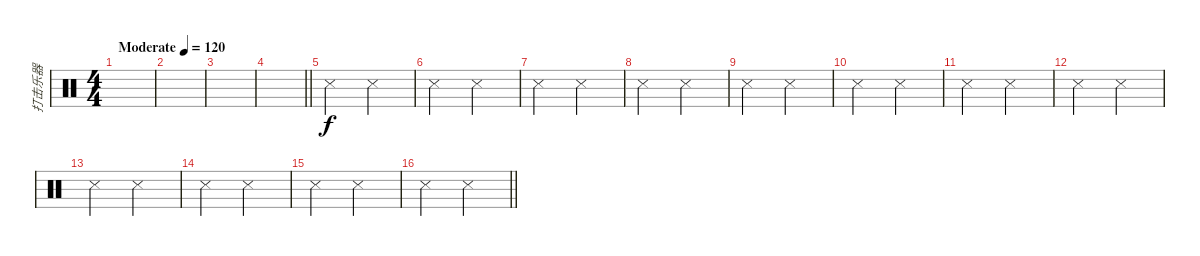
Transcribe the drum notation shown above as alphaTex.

\track ("打击乐器" "打击乐器") {instrument percussion}
\staff {score}
\articulation defaults
\ts (4 4)
\tempo (120 "Moderate")
\clef neutral
\ks c
|
|
|
\barLineRight lightlight
|
"Snare (side stick) 3".2 "Snare (side stick) 3".2 |
"Snare (side stick) 3".2 "Snare (side stick) 3".2 |
"Snare (side stick) 3".2 "Snare (side stick) 3".2 |
"Snare (side stick) 3".2 "Snare (side stick) 3".2 |
"Snare (side stick) 3".2 "Snare (side stick) 3".2 |
"Snare (side stick) 3".2 "Snare (side stick) 3".2 |
"Snare (side stick) 3".2 "Snare (side stick) 3".2 |
"Snare (side stick) 3".2 "Snare (side stick) 3".2 |
"Snare (side stick) 3".2 "Snare (side stick) 3".2 |
"Snare (side stick) 3".2 "Snare (side stick) 3".2 |
"Snare (side stick) 3".2 "Snare (side stick) 3".2 |
\barLineRight lightlight "Snare (side stick) 3".2 "Snare (side stick) 3".2
